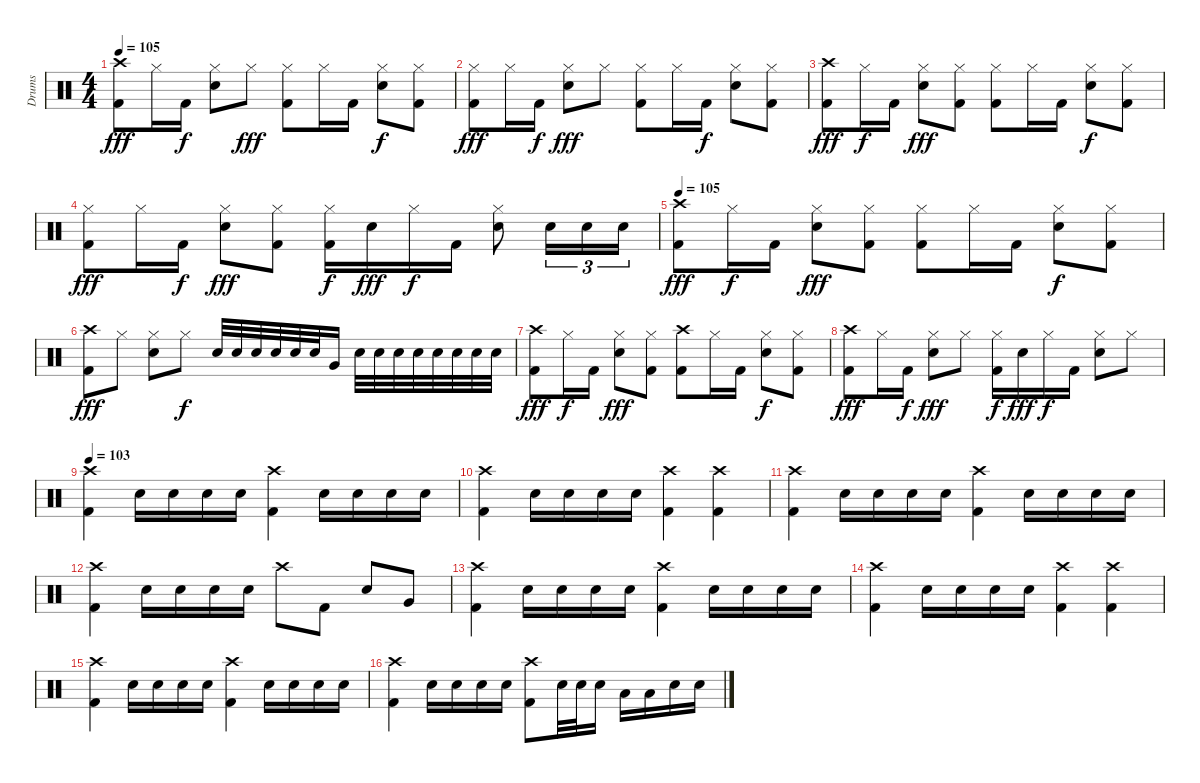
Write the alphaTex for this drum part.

\track ("Drums" "Drums") {instrument percussion}
\staff {score}
\articulation defaults
\ts (4 4)
\tempo 105
\clef neutral
\ks c
("Crash high (hit)" "Kick (hit) 2").8{dy fff} "Hi-Hat (closed)".16 "Kick (hit) 2".16{dy f} ("Hi-Hat (closed)" "Electric Snare (hit)").8 "Hi-Hat (closed)".8{dy fff} ("Hi-Hat (closed)" "Kick (hit) 2").8 "Hi-Hat (closed)".16 "Kick (hit) 2".16 ("Hi-Hat (closed)" "Electric Snare (hit)").8{dy f} ("Hi-Hat (closed)" "Kick (hit) 2").8 |
("Hi-Hat (closed)" "Kick (hit) 2").8{dy fff} "Hi-Hat (closed)".16 "Kick (hit) 2".16{dy f} ("Hi-Hat (closed)" "Electric Snare (hit)").8{dy fff} "Hi-Hat (closed)".8 ("Hi-Hat (closed)" "Kick (hit) 2").8 "Hi-Hat (closed)".16 "Kick (hit) 2".16{dy f} ("Hi-Hat (closed)" "Electric Snare (hit)").8 ("Hi-Hat (closed)" "Kick (hit) 2").8 |
("Crash high (hit)" "Kick (hit) 2").8{dy fff} "Hi-Hat (closed)".16{dy f} "Kick (hit) 2".16 ("Hi-Hat (closed)" "Electric Snare (hit)").8{dy fff} ("Hi-Hat (closed)" "Kick (hit) 2").8 ("Hi-Hat (closed)" "Kick (hit) 2").8 "Hi-Hat (closed)".16 "Kick (hit) 2".16 ("Hi-Hat (closed)" "Electric Snare (hit)").8{dy f} ("Hi-Hat (closed)" "Kick (hit) 2").8 |
("Hi-Hat (closed)" "Kick (hit) 2").8{dy fff} "Hi-Hat (closed)".16 "Kick (hit) 2".16{dy f} ("Hi-Hat (closed)" "Electric Snare (hit)").8{dy fff} ("Hi-Hat (closed)" "Kick (hit) 2").8 ("Hi-Hat (closed)" "Kick (hit) 2").16{dy f} "Electric Snare (hit)".16{dy fff} "Hi-Hat (closed)".16{dy f} "Kick (hit) 2".16 ("Hi-Hat (closed)" "Electric Snare (hit)").8 "Electric Snare (hit)".16{tu (3 2)} "Electric Snare (hit)".16{tu (3 2)} "Electric Snare (hit)".16{tu (3 2)} |
\tempo 105
("Crash high (hit)" "Kick (hit) 2").8{dy fff} "Hi-Hat (closed)".16{dy f} "Kick (hit) 2".16 ("Hi-Hat (closed)" "Electric Snare (hit)").8{dy fff} ("Hi-Hat (closed)" "Kick (hit) 2").8 ("Hi-Hat (closed)" "Kick (hit) 2").8 "Hi-Hat (closed)".16 "Kick (hit) 2".16 ("Hi-Hat (closed)" "Electric Snare (hit)").8{dy f} ("Hi-Hat (closed)" "Kick (hit) 2").8 |
("Crash high (hit)" "Kick (hit) 2").8{dy fff} "Hi-Hat (closed)".8 ("Hi-Hat (closed)" "Electric Snare (hit)").8 "Hi-Hat (closed)".8{dy f} "Electric Snare (hit)".32 "Electric Snare (hit)".32 "Electric Snare (hit)".32 "Electric Snare (hit)".32 "Electric Snare (hit)".32 "Electric Snare (hit)".32 "Very Low Tom (hit)".16 "Electric Snare (hit)".32 "Electric Snare (hit)".32 "Electric Snare (hit)".32 "Electric Snare (hit)".32 "Electric Snare (hit)".32 "Electric Snare (hit)".32 "Electric Snare (hit)".32 "Electric Snare (hit)".32 |
("Crash high (hit)" "Kick (hit) 2").8{dy fff} "Hi-Hat (closed)".16{dy f} "Kick (hit) 2".16 ("Hi-Hat (closed)" "Electric Snare (hit)").8{dy fff} ("Hi-Hat (closed)" "Kick (hit) 2").8 ("Crash high (hit)" "Kick (hit) 2").8 "Hi-Hat (closed)".16 "Kick (hit) 2".16 ("Hi-Hat (closed)" "Electric Snare (hit)").8{dy f} ("Hi-Hat (closed)" "Kick (hit) 2").8 |
("Crash high (hit)" "Kick (hit) 2").8{dy fff} "Hi-Hat (closed)".16 "Kick (hit) 2".16{dy f} ("Hi-Hat (closed)" "Electric Snare (hit)").8{dy fff} "Hi-Hat (closed)".8 ("Hi-Hat (closed)" "Kick (hit) 2").16{dy f} "Electric Snare (hit)".16{dy fff} "Hi-Hat (closed)".16{dy f} "Kick (hit) 2".16 ("Hi-Hat (closed)" "Electric Snare (hit)").8 "Hi-Hat (closed)".8 |
\tempo 103
("Crash high (hit)" "Kick (hit) 2").4 "Electric Snare (hit)".16 "Electric Snare (hit)".16 "Electric Snare (hit)".16 "Electric Snare (hit)".16 ("Crash high (hit)" "Kick (hit) 2").4 "Electric Snare (hit)".16 "Electric Snare (hit)".16 "Electric Snare (hit)".16 "Electric Snare (hit)".16 |
("Crash high (hit)" "Kick (hit) 2").4 "Electric Snare (hit)".16 "Electric Snare (hit)".16 "Electric Snare (hit)".16 "Electric Snare (hit)".16 ("Crash high (hit)" "Kick (hit) 2").4 ("Crash high (hit)" "Kick (hit) 2").4 |
("Crash high (hit)" "Kick (hit) 2").4 "Electric Snare (hit)".16 "Electric Snare (hit)".16 "Electric Snare (hit)".16 "Electric Snare (hit)".16 ("Crash high (hit)" "Kick (hit) 2").4 "Electric Snare (hit)".16 "Electric Snare (hit)".16 "Electric Snare (hit)".16 "Electric Snare (hit)".16 |
("Crash high (hit)" "Kick (hit) 2").4 "Electric Snare (hit)".16 "Electric Snare (hit)".16 "Electric Snare (hit)".16 "Electric Snare (hit)".16 "Crash high (hit)".8 "Kick (hit) 2".8 "Electric Snare (hit)".8 "Very Low Tom (hit)".8 |
("Crash high (hit)" "Kick (hit) 2").4 "Electric Snare (hit)".16 "Electric Snare (hit)".16 "Electric Snare (hit)".16 "Electric Snare (hit)".16 ("Crash high (hit)" "Kick (hit) 2").4 "Electric Snare (hit)".16 "Electric Snare (hit)".16 "Electric Snare (hit)".16 "Electric Snare (hit)".16 |
("Crash high (hit)" "Kick (hit) 2").4 "Electric Snare (hit)".16 "Electric Snare (hit)".16 "Electric Snare (hit)".16 "Electric Snare (hit)".16 ("Crash high (hit)" "Kick (hit) 2").4 ("Crash high (hit)" "Kick (hit) 2").4 |
("Crash high (hit)" "Kick (hit) 2").4 "Electric Snare (hit)".16 "Electric Snare (hit)".16 "Electric Snare (hit)".16 "Electric Snare (hit)".16 ("Crash high (hit)" "Kick (hit) 2").4 "Electric Snare (hit)".16 "Electric Snare (hit)".16 "Electric Snare (hit)".16 "Electric Snare (hit)".16 |
("Crash high (hit)" "Kick (hit) 2").4 "Electric Snare (hit)".16 "Electric Snare (hit)".16 "Electric Snare (hit)".16 "Electric Snare (hit)".16 ("Crash high (hit)" "Kick (hit) 2").8 "Electric Snare (hit)".32 "Electric Snare (hit)".32 "Electric Snare (hit)".16 "Low Tom (hit)".16 "Low Tom (hit)".16 "Electric Snare (hit)".16 "Electric Snare (hit)".16
